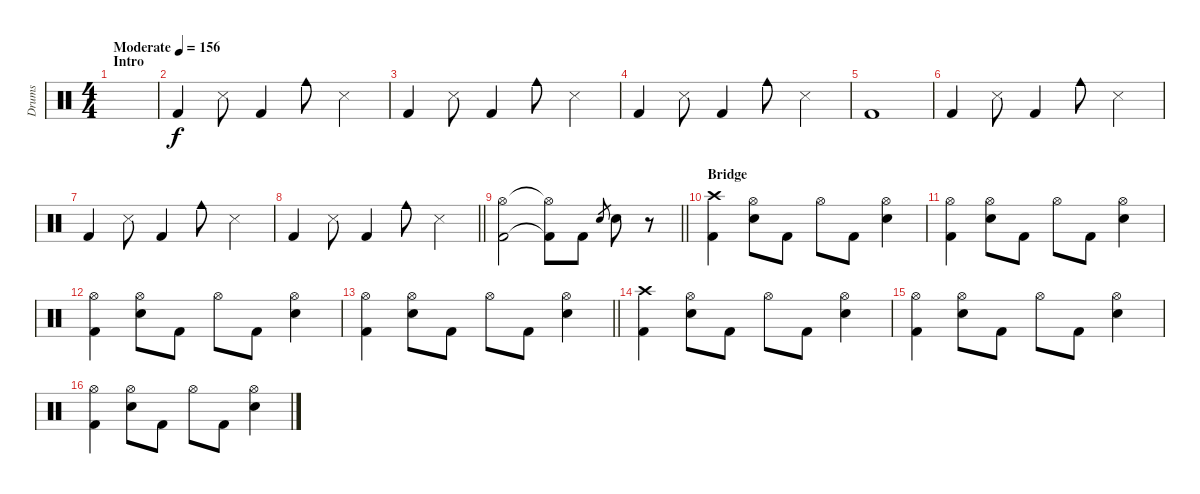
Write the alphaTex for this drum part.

\track ("Drums" "Drums") {instrument percussion}
\staff {score}
\articulation defaults
\ts (4 4)
\section ("" "Intro")
\tempo (156 "Moderate")
\clef neutral
\ks c
|
"Kick (hit) 2".4 "Snare (side stick) 3".8 "Kick (hit) 2".4 "Cowbell medium (hit)".8 "Snare (side stick) 3".4 |
"Kick (hit) 2".4 "Snare (side stick) 3".8 "Kick (hit) 2".4 "Cowbell medium (hit)".8 "Snare (side stick) 3".4 |
"Kick (hit) 2".4 "Snare (side stick) 3".8 "Kick (hit) 2".4 "Cowbell medium (hit)".8 "Snare (side stick) 3".4 |
"Kick (hit) 2".1 |
"Kick (hit) 2".4 "Snare (side stick) 3".8 "Kick (hit) 2".4 "Cowbell medium (hit)".8 "Snare (side stick) 3".4 |
"Kick (hit) 2".4 "Snare (side stick) 3".8 "Kick (hit) 2".4 "Cowbell medium (hit)".8 "Snare (side stick) 3".4 |
\barLineRight lightlight "Kick (hit) 2".4 "Snare (side stick) 3".8 "Kick (hit) 2".4 "Cowbell medium (hit)".8 "Snare (side stick) 3".4
|
\barLineRight lightlight
("Hi-Hat (open)" "Kick (hit) 2").2 ("Hi-Hat (open)"{t} "Kick (hit) 2"{t}).8 "Kick (hit) 2".8 "Electric Snare (hit)".8{gr} "Electric Snare (hit)".8 r.8 |
\section ("" "Bridge")
("Crash high (hit)" "Kick (hit) 2").4 ("Hi-Hat (open)" "Electric Snare (hit)").8 "Kick (hit) 2".8 "Hi-Hat (open)".8 "Kick (hit) 2".8 ("Hi-Hat (open)" "Electric Snare (hit)").4 |
("Hi-Hat (open)" "Kick (hit) 2").4 ("Hi-Hat (open)" "Electric Snare (hit)").8 "Kick (hit) 2".8 "Hi-Hat (open)".8 "Kick (hit) 2".8 ("Hi-Hat (open)" "Electric Snare (hit)").4 |
("Hi-Hat (open)" "Kick (hit) 2").4 ("Hi-Hat (open)" "Electric Snare (hit)").8 "Kick (hit) 2".8 "Hi-Hat (open)".8 "Kick (hit) 2".8 ("Hi-Hat (open)" "Electric Snare (hit)").4 |
\barLineRight lightlight
("Hi-Hat (open)" "Kick (hit) 2").4 ("Hi-Hat (open)" "Electric Snare (hit)").8 "Kick (hit) 2".8 "Hi-Hat (open)".8 "Kick (hit) 2".8 ("Hi-Hat (open)" "Electric Snare (hit)").4 |
("Crash high (hit)" "Kick (hit) 2").4 ("Hi-Hat (open)" "Electric Snare (hit)").8 "Kick (hit) 2".8 "Hi-Hat (open)".8 "Kick (hit) 2".8 ("Hi-Hat (open)" "Electric Snare (hit)").4 |
("Hi-Hat (open)" "Kick (hit) 2").4 ("Hi-Hat (open)" "Electric Snare (hit)").8 "Kick (hit) 2".8 "Hi-Hat (open)".8 "Kick (hit) 2".8 ("Hi-Hat (open)" "Electric Snare (hit)").4 |
("Hi-Hat (open)" "Kick (hit) 2").4 ("Hi-Hat (open)" "Electric Snare (hit)").8 "Kick (hit) 2".8 "Hi-Hat (open)".8 "Kick (hit) 2".8 ("Hi-Hat (open)" "Electric Snare (hit)").4
